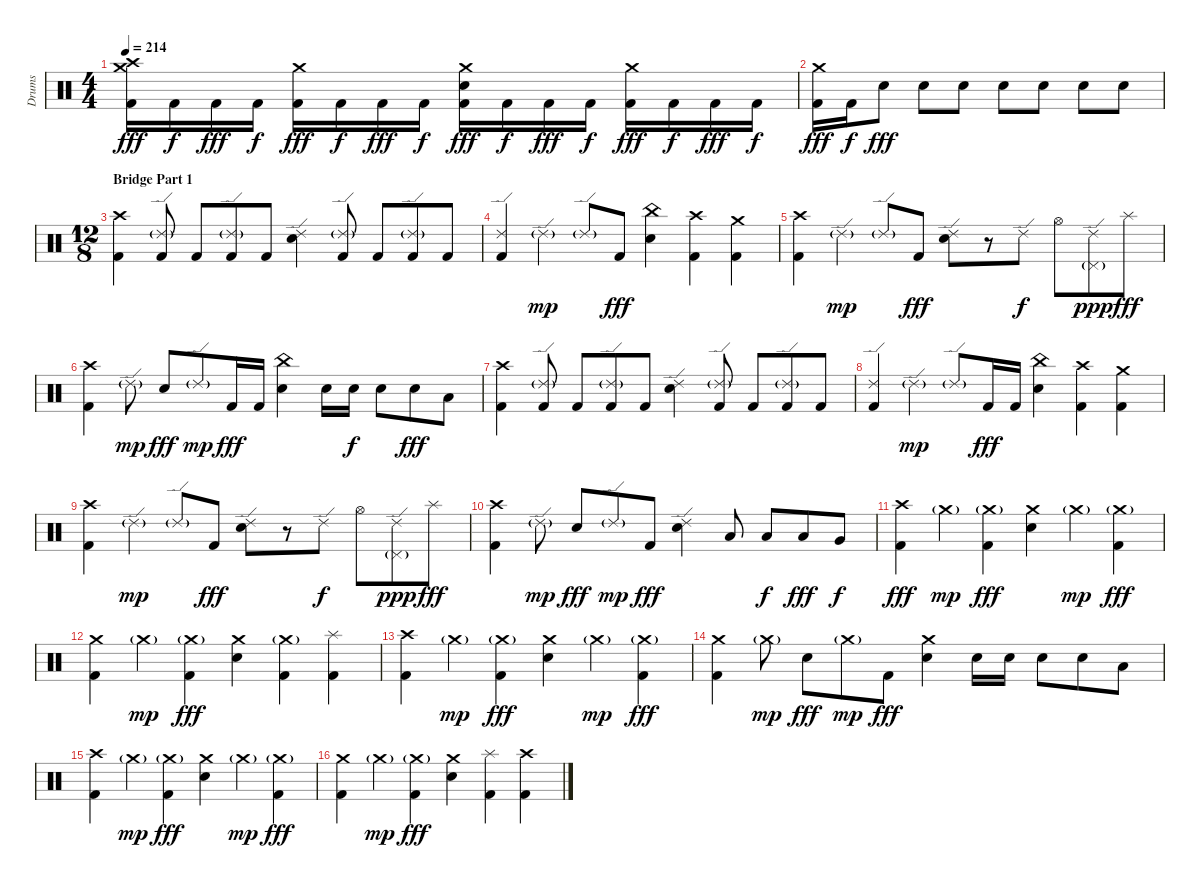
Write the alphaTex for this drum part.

\track ("Drums" "Drums") {instrument percussion}
\staff {score}
\articulation defaults
\ts (4 4)
\tempo 214
\clef neutral
\ks c
("Crash medium (hit)" "Crash high (hit)" "Kick (hit) 2").16{dy fff} "Kick (hit) 2".16{dy f} "Kick (hit) 2".16{dy fff} "Kick (hit) 2".16{dy f} ("Crash medium (hit)" "Kick (hit) 2").16{dy fff} "Kick (hit) 2".16{dy f} "Kick (hit) 2".16{dy fff} "Kick (hit) 2".16{dy f} ("Crash medium (hit)" "Electric Snare (hit)" "Kick (hit) 2").16{dy fff} "Kick (hit) 2".16{dy f} "Kick (hit) 2".16{dy fff} "Kick (hit) 2".16{dy f} ("Crash medium (hit)" "Kick (hit) 2").16{dy fff} "Kick (hit) 2".16{dy f} "Kick (hit) 2".16{dy fff} "Kick (hit) 2".16{dy f} |
("Crash medium (hit)" "Kick (hit) 2").16{dy fff} "Kick (hit) 2".16{dy f} "Electric Snare (hit)".8{dy fff} "Electric Snare (hit)".8 "Electric Snare (hit)".8 "Electric Snare (hit)".8 "Electric Snare (hit)".8 "Electric Snare (hit)".8 "Electric Snare (hit)".8 |
\ts (12 8)
\section ("" "Bridge Part 1")
("Crash high (hit)" "Kick (hit) 2").4 ("Ride (edge) 2"{g} "Kick (hit) 2").8 "Kick (hit) 2".8 ("Ride (edge) 2"{g} "Kick (hit) 2").8 "Kick (hit) 2".8 ("Ride (edge) 2" "Electric Snare (hit)").4 ("Ride (edge) 2"{g} "Kick (hit) 2").8 "Kick (hit) 2".8 ("Ride (edge) 2"{g} "Kick (hit) 2").8 "Kick (hit) 2".8 |
("Ride (edge) 2" "Kick (hit) 2").4 "Ride (edge) 2"{g}.4{dy mp} "Ride (edge) 2"{g}.8 "Kick (hit) 2".8{dy fff} ("China (hit)" "Electric Snare (hit)").4 ("Crash high (hit)" "Kick (hit) 2").4 ("Crash medium (hit)" "Kick (hit) 2").4 |
("Crash high (hit)" "Kick (hit) 2").4 "Ride (edge) 2"{g}.4{dy mp} "Ride (edge) 2"{g}.8 "Kick (hit) 2".8{dy fff} ("Ride (edge) 2" "Electric Snare (hit)").8 r.8 "Ride (edge) 2".8{dy f} "Hi-Hat (open)".8 ("Ride (edge) 2" "Pedal Hi-Hat (hit)"{g}).8{dy ppp} "Splash (hit)".8{dy fff} |
("Crash high (hit)" "Kick (hit) 2").4 "Ride (edge) 2"{g}.8{dy mp} "Electric Snare (hit)".8{dy fff} "Ride (edge) 2"{g}.8{dy mp} "Kick (hit) 2".16{dy fff} "Kick (hit) 2".16 ("China (hit)" "Electric Snare (hit)").4 "Electric Snare (hit)".16 "Electric Snare (hit)".16{dy f} "Electric Snare (hit)".8 "Electric Snare (hit)".8{dy fff} "Low Tom (hit)".8 |
("Crash high (hit)" "Kick (hit) 2").4 ("Ride (edge) 2"{g} "Kick (hit) 2").8 "Kick (hit) 2".8 ("Ride (edge) 2"{g} "Kick (hit) 2").8 "Kick (hit) 2".8 ("Ride (edge) 2" "Electric Snare (hit)").4 ("Ride (edge) 2"{g} "Kick (hit) 2").8 "Kick (hit) 2".8 ("Ride (edge) 2"{g} "Kick (hit) 2").8 "Kick (hit) 2".8 |
("Ride (edge) 2" "Kick (hit) 2").4 "Ride (edge) 2"{g}.4{dy mp} "Ride (edge) 2"{g}.8 "Kick (hit) 2".16{dy fff} "Kick (hit) 2".16 ("China (hit)" "Electric Snare (hit)").4 ("Crash high (hit)" "Kick (hit) 2").4 ("Crash medium (hit)" "Kick (hit) 2").4 |
("Crash high (hit)" "Kick (hit) 2").4 "Ride (edge) 2"{g}.4{dy mp} "Ride (edge) 2"{g}.8 "Kick (hit) 2".8{dy fff} ("Ride (edge) 2" "Electric Snare (hit)").8 r.8 "Ride (edge) 2".8{dy f} "Hi-Hat (open)".8 ("Ride (edge) 2" "Pedal Hi-Hat (hit)"{g}).8{dy ppp} "Splash (hit)".8{dy fff} |
("Crash high (hit)" "Kick (hit) 2").4 "Ride (edge) 2"{g}.8{dy mp} "Electric Snare (hit)".8{dy fff} "Ride (edge) 2"{g}.8{dy mp} "Kick (hit) 2".8{dy fff} ("Ride (edge) 2" "Electric Snare (hit)").4 "Low Tom (hit)".8 "Low Tom (hit)".8{dy f} "Low Tom (hit)".8{dy fff} "Very Low Tom (hit)".8{dy f} |
("Crash high (hit)" "Kick (hit) 2").4{dy fff} "Crash medium (hit)"{g}.4{dy mp} ("Crash medium (hit)"{g} "Kick (hit) 2").4{dy fff} ("Crash medium (hit)" "Electric Snare (hit)").4 "Crash medium (hit)"{g}.4{dy mp} ("Crash medium (hit)"{g} "Kick (hit) 2").4{dy fff} |
("Crash medium (hit)" "Kick (hit) 2").4 "Crash medium (hit)"{g}.4{dy mp} ("Crash medium (hit)"{g} "Kick (hit) 2").4{dy fff} ("Crash medium (hit)" "Electric Snare (hit)").4 ("Crash medium (hit)"{g} "Kick (hit) 2").4 ("Splash (hit)" "Kick (hit) 2").4 |
("Crash high (hit)" "Kick (hit) 2").4 "Crash medium (hit)"{g}.4{dy mp} ("Crash medium (hit)"{g} "Kick (hit) 2").4{dy fff} ("Crash medium (hit)" "Electric Snare (hit)").4 "Crash medium (hit)"{g}.4{dy mp} ("Crash medium (hit)"{g} "Kick (hit) 2").4{dy fff} |
("Crash medium (hit)" "Kick (hit) 2").4 "Crash medium (hit)"{g}.8{dy mp} "Electric Snare (hit)".8{dy fff} "Crash medium (hit)"{g}.8{dy mp} "Kick (hit) 2".8{dy fff} ("Crash medium (hit)" "Electric Snare (hit)").4 "Electric Snare (hit)".16 "Electric Snare (hit)".16 "Electric Snare (hit)".8 "Electric Snare (hit)".8 "Low Tom (hit)".8 |
("Crash high (hit)" "Kick (hit) 2").4 "Crash medium (hit)"{g}.4{dy mp} ("Crash medium (hit)"{g} "Kick (hit) 2").4{dy fff} ("Crash medium (hit)" "Electric Snare (hit)").4 "Crash medium (hit)"{g}.4{dy mp} ("Crash medium (hit)"{g} "Kick (hit) 2").4{dy fff} |
("Crash medium (hit)" "Kick (hit) 2").4 "Crash medium (hit)"{g}.4{dy mp} ("Crash medium (hit)"{g} "Kick (hit) 2").4{dy fff} ("Crash medium (hit)" "Electric Snare (hit)").4 ("Splash (hit)" "Kick (hit) 2").4 ("Crash high (hit)" "Kick (hit) 2").4
